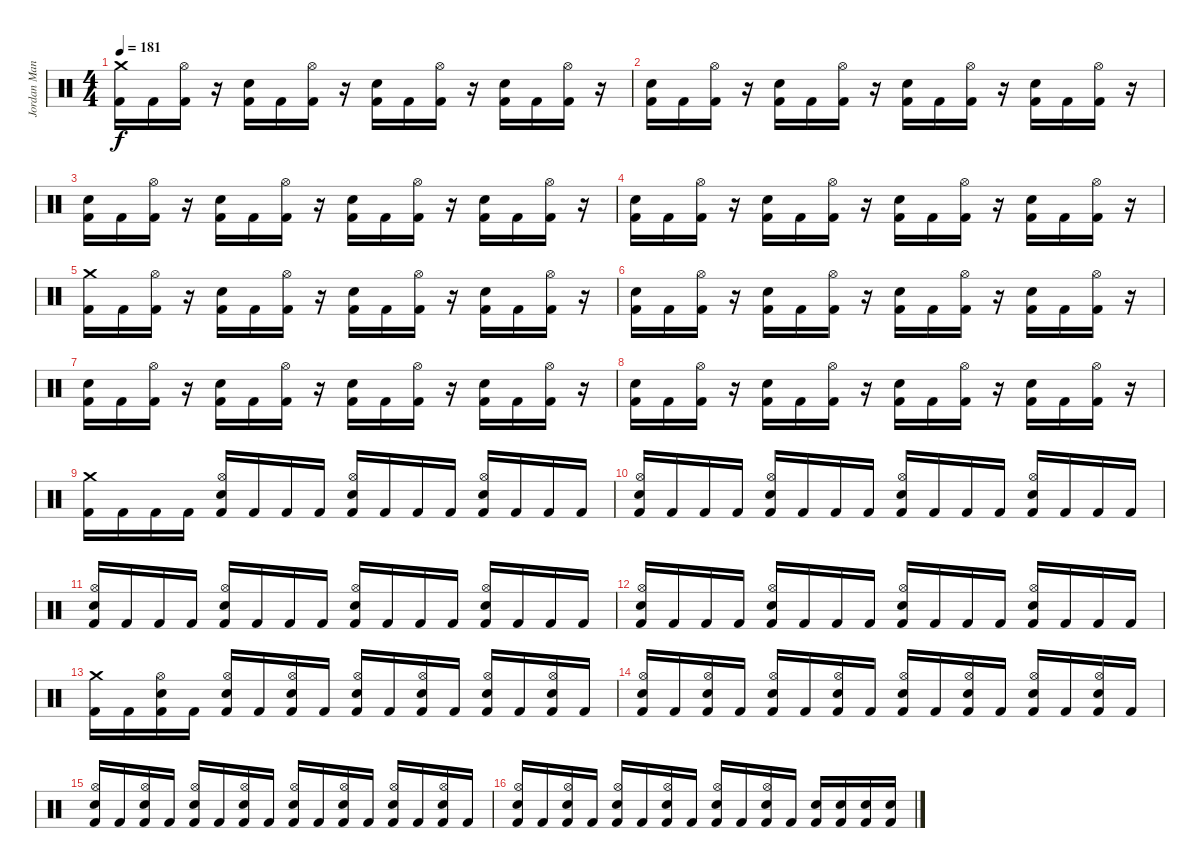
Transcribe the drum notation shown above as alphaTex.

\track ("Jordan Mancino" "Jordan Man") {instrument percussion}
\staff {score}
\articulation defaults
\ts (4 4)
\tempo 181
\clef neutral
\ks c
("Crash medium (hit)" "Kick (hit) 2").16{dy f} "Kick (hit) 2".16 ("Hi-Hat (open)" "Kick (hit) 2").16 r.16 ("Electric Snare (hit)" "Kick (hit) 2").16 "Kick (hit) 2".16 ("Hi-Hat (open)" "Kick (hit) 2").16 r.16 ("Electric Snare (hit)" "Kick (hit) 2").16 "Kick (hit) 2".16 ("Hi-Hat (open)" "Kick (hit) 2").16 r.16 ("Electric Snare (hit)" "Kick (hit) 2").16 "Kick (hit) 2".16 ("Hi-Hat (open)" "Kick (hit) 2").16 r.16 |
("Electric Snare (hit)" "Kick (hit) 2").16 "Kick (hit) 2".16 ("Hi-Hat (open)" "Kick (hit) 2").16 r.16 ("Electric Snare (hit)" "Kick (hit) 2").16 "Kick (hit) 2".16 ("Hi-Hat (open)" "Kick (hit) 2").16 r.16 ("Electric Snare (hit)" "Kick (hit) 2").16 "Kick (hit) 2".16 ("Hi-Hat (open)" "Kick (hit) 2").16 r.16 ("Electric Snare (hit)" "Kick (hit) 2").16 "Kick (hit) 2".16 ("Hi-Hat (open)" "Kick (hit) 2").16 r.16 |
("Electric Snare (hit)" "Kick (hit) 2").16 "Kick (hit) 2".16 ("Hi-Hat (open)" "Kick (hit) 2").16 r.16 ("Electric Snare (hit)" "Kick (hit) 2").16 "Kick (hit) 2".16 ("Hi-Hat (open)" "Kick (hit) 2").16 r.16 ("Electric Snare (hit)" "Kick (hit) 2").16 "Kick (hit) 2".16 ("Hi-Hat (open)" "Kick (hit) 2").16 r.16 ("Electric Snare (hit)" "Kick (hit) 2").16 "Kick (hit) 2".16 ("Hi-Hat (open)" "Kick (hit) 2").16 r.16 |
("Electric Snare (hit)" "Kick (hit) 2").16 "Kick (hit) 2".16 ("Hi-Hat (open)" "Kick (hit) 2").16 r.16 ("Electric Snare (hit)" "Kick (hit) 2").16 "Kick (hit) 2".16 ("Hi-Hat (open)" "Kick (hit) 2").16 r.16 ("Electric Snare (hit)" "Kick (hit) 2").16 "Kick (hit) 2".16 ("Hi-Hat (open)" "Kick (hit) 2").16 r.16 ("Electric Snare (hit)" "Kick (hit) 2").16 "Kick (hit) 2".16 ("Hi-Hat (open)" "Kick (hit) 2").16 r.16 |
("Crash medium (hit)" "Kick (hit) 2").16 "Kick (hit) 2".16 ("Hi-Hat (open)" "Kick (hit) 2").16 r.16 ("Electric Snare (hit)" "Kick (hit) 2").16 "Kick (hit) 2".16 ("Hi-Hat (open)" "Kick (hit) 2").16 r.16 ("Electric Snare (hit)" "Kick (hit) 2").16 "Kick (hit) 2".16 ("Hi-Hat (open)" "Kick (hit) 2").16 r.16 ("Electric Snare (hit)" "Kick (hit) 2").16 "Kick (hit) 2".16 ("Hi-Hat (open)" "Kick (hit) 2").16 r.16 |
("Electric Snare (hit)" "Kick (hit) 2").16 "Kick (hit) 2".16 ("Hi-Hat (open)" "Kick (hit) 2").16 r.16 ("Electric Snare (hit)" "Kick (hit) 2").16 "Kick (hit) 2".16 ("Hi-Hat (open)" "Kick (hit) 2").16 r.16 ("Electric Snare (hit)" "Kick (hit) 2").16 "Kick (hit) 2".16 ("Hi-Hat (open)" "Kick (hit) 2").16 r.16 ("Electric Snare (hit)" "Kick (hit) 2").16 "Kick (hit) 2".16 ("Hi-Hat (open)" "Kick (hit) 2").16 r.16 |
("Electric Snare (hit)" "Kick (hit) 2").16 "Kick (hit) 2".16 ("Hi-Hat (open)" "Kick (hit) 2").16 r.16 ("Electric Snare (hit)" "Kick (hit) 2").16 "Kick (hit) 2".16 ("Hi-Hat (open)" "Kick (hit) 2").16 r.16 ("Electric Snare (hit)" "Kick (hit) 2").16 "Kick (hit) 2".16 ("Hi-Hat (open)" "Kick (hit) 2").16 r.16 ("Electric Snare (hit)" "Kick (hit) 2").16 "Kick (hit) 2".16 ("Hi-Hat (open)" "Kick (hit) 2").16 r.16 |
("Electric Snare (hit)" "Kick (hit) 2").16 "Kick (hit) 2".16 ("Hi-Hat (open)" "Kick (hit) 2").16 r.16 ("Electric Snare (hit)" "Kick (hit) 2").16 "Kick (hit) 2".16 ("Hi-Hat (open)" "Kick (hit) 2").16 r.16 ("Electric Snare (hit)" "Kick (hit) 2").16 "Kick (hit) 2".16 ("Hi-Hat (open)" "Kick (hit) 2").16 r.16 ("Electric Snare (hit)" "Kick (hit) 2").16 "Kick (hit) 2".16 ("Hi-Hat (open)" "Kick (hit) 2").16 r.16 |
("Crash medium (hit)" "Kick (hit) 2").16 "Kick (hit) 2".16 "Kick (hit) 2".16 "Kick (hit) 2".16 ("Hi-Hat (open)" "Electric Snare (hit)" "Kick (hit) 2").16 "Kick (hit) 2".16 "Kick (hit) 2".16 "Kick (hit) 2".16 ("Hi-Hat (open)" "Electric Snare (hit)" "Kick (hit) 2").16 "Kick (hit) 2".16 "Kick (hit) 2".16 "Kick (hit) 2".16 ("Hi-Hat (open)" "Electric Snare (hit)" "Kick (hit) 2").16 "Kick (hit) 2".16 "Kick (hit) 2".16 "Kick (hit) 2".16 |
("Hi-Hat (open)" "Electric Snare (hit)" "Kick (hit) 2").16 "Kick (hit) 2".16 "Kick (hit) 2".16 "Kick (hit) 2".16 ("Hi-Hat (open)" "Electric Snare (hit)" "Kick (hit) 2").16 "Kick (hit) 2".16 "Kick (hit) 2".16 "Kick (hit) 2".16 ("Hi-Hat (open)" "Electric Snare (hit)" "Kick (hit) 2").16 "Kick (hit) 2".16 "Kick (hit) 2".16 "Kick (hit) 2".16 ("Hi-Hat (open)" "Electric Snare (hit)" "Kick (hit) 2").16 "Kick (hit) 2".16 "Kick (hit) 2".16 "Kick (hit) 2".16 |
("Hi-Hat (open)" "Electric Snare (hit)" "Kick (hit) 2").16 "Kick (hit) 2".16 "Kick (hit) 2".16 "Kick (hit) 2".16 ("Hi-Hat (open)" "Electric Snare (hit)" "Kick (hit) 2").16 "Kick (hit) 2".16 "Kick (hit) 2".16 "Kick (hit) 2".16 ("Hi-Hat (open)" "Electric Snare (hit)" "Kick (hit) 2").16 "Kick (hit) 2".16 "Kick (hit) 2".16 "Kick (hit) 2".16 ("Hi-Hat (open)" "Electric Snare (hit)" "Kick (hit) 2").16 "Kick (hit) 2".16 "Kick (hit) 2".16 "Kick (hit) 2".16 |
("Hi-Hat (open)" "Electric Snare (hit)" "Kick (hit) 2").16 "Kick (hit) 2".16 "Kick (hit) 2".16 "Kick (hit) 2".16 ("Hi-Hat (open)" "Electric Snare (hit)" "Kick (hit) 2").16 "Kick (hit) 2".16 "Kick (hit) 2".16 "Kick (hit) 2".16 ("Hi-Hat (open)" "Electric Snare (hit)" "Kick (hit) 2").16 "Kick (hit) 2".16 "Kick (hit) 2".16 "Kick (hit) 2".16 ("Hi-Hat (open)" "Electric Snare (hit)" "Kick (hit) 2").16 "Kick (hit) 2".16 "Kick (hit) 2".16 "Kick (hit) 2".16 |
("Crash medium (hit)" "Kick (hit) 2").16 "Kick (hit) 2".16 ("Hi-Hat (open)" "Electric Snare (hit)" "Kick (hit) 2").16 "Kick (hit) 2".16 ("Hi-Hat (open)" "Electric Snare (hit)" "Kick (hit) 2").16 "Kick (hit) 2".16 ("Hi-Hat (open)" "Electric Snare (hit)" "Kick (hit) 2").16 "Kick (hit) 2".16 ("Hi-Hat (open)" "Electric Snare (hit)" "Kick (hit) 2").16 "Kick (hit) 2".16 ("Hi-Hat (open)" "Electric Snare (hit)" "Kick (hit) 2").16 "Kick (hit) 2".16 ("Hi-Hat (open)" "Electric Snare (hit)" "Kick (hit) 2").16 "Kick (hit) 2".16 ("Hi-Hat (open)" "Electric Snare (hit)" "Kick (hit) 2").16 "Kick (hit) 2".16 |
("Hi-Hat (open)" "Electric Snare (hit)" "Kick (hit) 2").16 "Kick (hit) 2".16 ("Hi-Hat (open)" "Electric Snare (hit)" "Kick (hit) 2").16 "Kick (hit) 2".16 ("Hi-Hat (open)" "Electric Snare (hit)" "Kick (hit) 2").16 "Kick (hit) 2".16 ("Hi-Hat (open)" "Electric Snare (hit)" "Kick (hit) 2").16 "Kick (hit) 2".16 ("Hi-Hat (open)" "Electric Snare (hit)" "Kick (hit) 2").16 "Kick (hit) 2".16 ("Hi-Hat (open)" "Electric Snare (hit)" "Kick (hit) 2").16 "Kick (hit) 2".16 ("Hi-Hat (open)" "Electric Snare (hit)" "Kick (hit) 2").16 "Kick (hit) 2".16 ("Hi-Hat (open)" "Electric Snare (hit)" "Kick (hit) 2").16 "Kick (hit) 2".16 |
("Hi-Hat (open)" "Electric Snare (hit)" "Kick (hit) 2").16 "Kick (hit) 2".16 ("Hi-Hat (open)" "Electric Snare (hit)" "Kick (hit) 2").16 "Kick (hit) 2".16 ("Hi-Hat (open)" "Electric Snare (hit)" "Kick (hit) 2").16 "Kick (hit) 2".16 ("Hi-Hat (open)" "Electric Snare (hit)" "Kick (hit) 2").16 "Kick (hit) 2".16 ("Hi-Hat (open)" "Electric Snare (hit)" "Kick (hit) 2").16 "Kick (hit) 2".16 ("Hi-Hat (open)" "Electric Snare (hit)" "Kick (hit) 2").16 "Kick (hit) 2".16 ("Hi-Hat (open)" "Electric Snare (hit)" "Kick (hit) 2").16 "Kick (hit) 2".16 ("Hi-Hat (open)" "Electric Snare (hit)" "Kick (hit) 2").16 "Kick (hit) 2".16 |
("Hi-Hat (open)" "Electric Snare (hit)" "Kick (hit) 2").16 "Kick (hit) 2".16 ("Hi-Hat (open)" "Electric Snare (hit)" "Kick (hit) 2").16 "Kick (hit) 2".16 ("Hi-Hat (open)" "Electric Snare (hit)" "Kick (hit) 2").16 "Kick (hit) 2".16 ("Hi-Hat (open)" "Electric Snare (hit)" "Kick (hit) 2").16 "Kick (hit) 2".16 ("Hi-Hat (open)" "Electric Snare (hit)" "Kick (hit) 2").16 "Kick (hit) 2".16 ("Hi-Hat (open)" "Electric Snare (hit)" "Kick (hit) 2").16 "Kick (hit) 2".16 ("Electric Snare (hit)" "Kick (hit) 2").16 ("Electric Snare (hit)" "Kick (hit) 2").16 ("Electric Snare (hit)" "Kick (hit) 2").16 ("Electric Snare (hit)" "Kick (hit) 2").16
